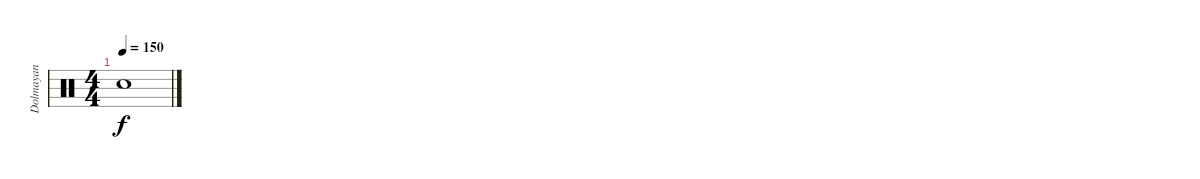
\track ("Dolmayan" "Dolmayan") {instrument percussion}
\staff {score}
\articulation defaults
\ts (4 4)
\tempo 150
\clef neutral
\ks c "Snare (hit)"{t}.1{dy f}
